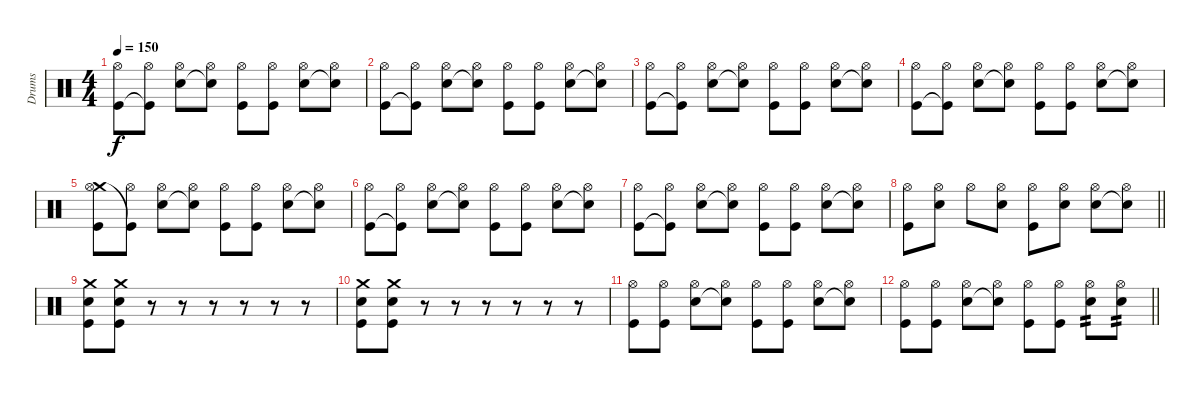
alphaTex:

\track ("Drums" "Drums") {instrument percussion}
\staff {score}
\articulation defaults
\ts (4 4)
\tempo 150
\clef neutral
\ks c
("Hi-Hat (open)" "Kick (hit)").8{dy f} ("Hi-Hat (open)" "Kick (hit)"{t}).8 ("Hi-Hat (open)" "Electric Snare (hit)").8 ("Hi-Hat (open)" "Snare (hit)"{t}).8 ("Hi-Hat (open)" "Kick (hit)").8 ("Hi-Hat (open)" "Kick (hit)").8 ("Hi-Hat (open)" "Electric Snare (hit)").8 ("Hi-Hat (open)" "Snare (hit)"{t}).8 |
("Hi-Hat (open)" "Kick (hit)").8 ("Hi-Hat (open)" "Kick (hit)"{t}).8 ("Hi-Hat (open)" "Electric Snare (hit)").8 ("Hi-Hat (open)" "Snare (hit)"{t}).8 ("Hi-Hat (open)" "Kick (hit)").8 ("Hi-Hat (open)" "Kick (hit)").8 ("Hi-Hat (open)" "Electric Snare (hit)").8 ("Hi-Hat (open)" "Snare (hit)"{t}).8 |
("Hi-Hat (open)" "Kick (hit)").8 ("Hi-Hat (open)" "Kick (hit)"{t}).8 ("Hi-Hat (open)" "Electric Snare (hit)").8 ("Hi-Hat (open)" "Snare (hit)"{t}).8 ("Hi-Hat (open)" "Kick (hit)").8 ("Hi-Hat (open)" "Kick (hit)").8 ("Hi-Hat (open)" "Electric Snare (hit)").8 ("Hi-Hat (open)" "Snare (hit)"{t}).8 |
("Hi-Hat (open)" "Kick (hit)").8 ("Hi-Hat (open)" "Kick (hit)"{t}).8 ("Hi-Hat (open)" "Electric Snare (hit)").8 ("Hi-Hat (open)" "Snare (hit)"{t}).8 ("Hi-Hat (open)" "Kick (hit)").8 ("Hi-Hat (open)" "Kick (hit)").8 ("Hi-Hat (open)" "Electric Snare (hit)").8 ("Hi-Hat (open)" "Snare (hit)"{t}).8 |
("Crash medium (hit)" "Hi-Hat (open)" "Kick (hit)").8 ("Hi-Hat (open)" "Kick (hit)"{t}).8 ("Hi-Hat (open)" "Electric Snare (hit)").8 ("Hi-Hat (open)" "Snare (hit)"{t}).8 ("Hi-Hat (open)" "Kick (hit)").8 ("Hi-Hat (open)" "Kick (hit)").8 ("Hi-Hat (open)" "Electric Snare (hit)").8 ("Hi-Hat (open)" "Snare (hit)"{t}).8 |
("Hi-Hat (open)" "Kick (hit)").8 ("Hi-Hat (open)" "Kick (hit)"{t}).8 ("Hi-Hat (open)" "Electric Snare (hit)").8 ("Hi-Hat (open)" "Snare (hit)"{t}).8 ("Hi-Hat (open)" "Kick (hit)").8 ("Hi-Hat (open)" "Kick (hit)").8 ("Hi-Hat (open)" "Electric Snare (hit)").8 ("Hi-Hat (open)" "Snare (hit)"{t}).8 |
("Hi-Hat (open)" "Kick (hit)").8 ("Hi-Hat (open)" "Kick (hit)"{t}).8 ("Hi-Hat (open)" "Electric Snare (hit)").8 ("Hi-Hat (open)" "Snare (hit)"{t}).8 ("Hi-Hat (open)" "Kick (hit)").8 ("Hi-Hat (open)" "Kick (hit)").8 ("Hi-Hat (open)" "Electric Snare (hit)").8 ("Hi-Hat (open)" "Snare (hit)"{t}).8 |
\barLineRight lightlight
("Hi-Hat (open)" "Kick (hit)").8 ("Hi-Hat (open)" "Electric Snare (hit)").8 "Hi-Hat (open)".8 ("Hi-Hat (open)" "Electric Snare (hit)").8 ("Hi-Hat (open)" "Kick (hit)").8 ("Hi-Hat (open)" "Electric Snare (hit)").8 ("Hi-Hat (open)" "Electric Snare (hit)").8 ("Hi-Hat (open)" "Snare (hit)"{t}).8 |
("Crash medium (hit)" "Electric Snare (hit)" "Kick (hit)").8 ("Crash medium (hit)" "Electric Snare (hit)" "Kick (hit)").8 r.8 r.8 r.8 r.8 r.8 r.8 |
("Crash medium (hit)" "Electric Snare (hit)" "Kick (hit)").8 ("Crash medium (hit)" "Electric Snare (hit)" "Kick (hit)").8 r.8 r.8 r.8 r.8 r.8 r.8 |
("Hi-Hat (open)" "Kick (hit)").8 ("Hi-Hat (open)" "Kick (hit)").8 ("Hi-Hat (open)" "Electric Snare (hit)").8 ("Hi-Hat (open)" "Snare (hit)"{t}).8 ("Hi-Hat (open)" "Kick (hit)").8 ("Hi-Hat (open)" "Kick (hit)").8 ("Hi-Hat (open)" "Electric Snare (hit)").8 ("Hi-Hat (open)" "Snare (hit)"{t}).8 |
\barLineRight lightlight
("Hi-Hat (open)" "Kick (hit)").8 ("Hi-Hat (open)" "Kick (hit)").8 ("Hi-Hat (open)" "Electric Snare (hit)").8 ("Hi-Hat (open)" "Snare (hit)"{t}).8 ("Hi-Hat (open)" "Kick (hit)").8 ("Hi-Hat (open)" "Kick (hit)").8 ("Hi-Hat (open)" "Electric Snare (hit)").8{tp 2} ("Hi-Hat (open)" "Electric Snare (hit)").8{tp 2}
